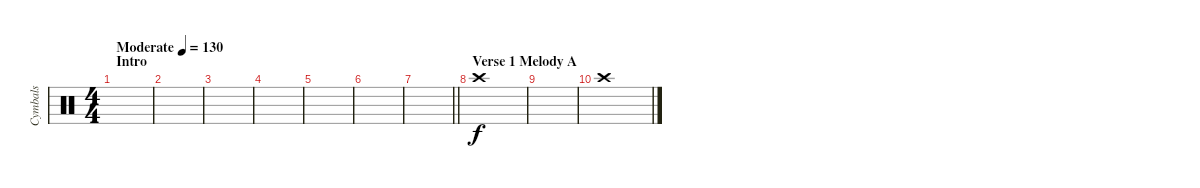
\track ("Cymbals" "Cymbals") {instrument percussion}
\staff {score}
\articulation defaults
\ts (4 4)
\section ("" "Intro")
\tempo (130 "Moderate")
\clef neutral
\ks c
|
|
|
|
|
|
\barLineRight lightlight
|
\section ("" "Verse 1 Melody A")
"Crash high (hit)".1 |
|
"Crash high (hit)".1
